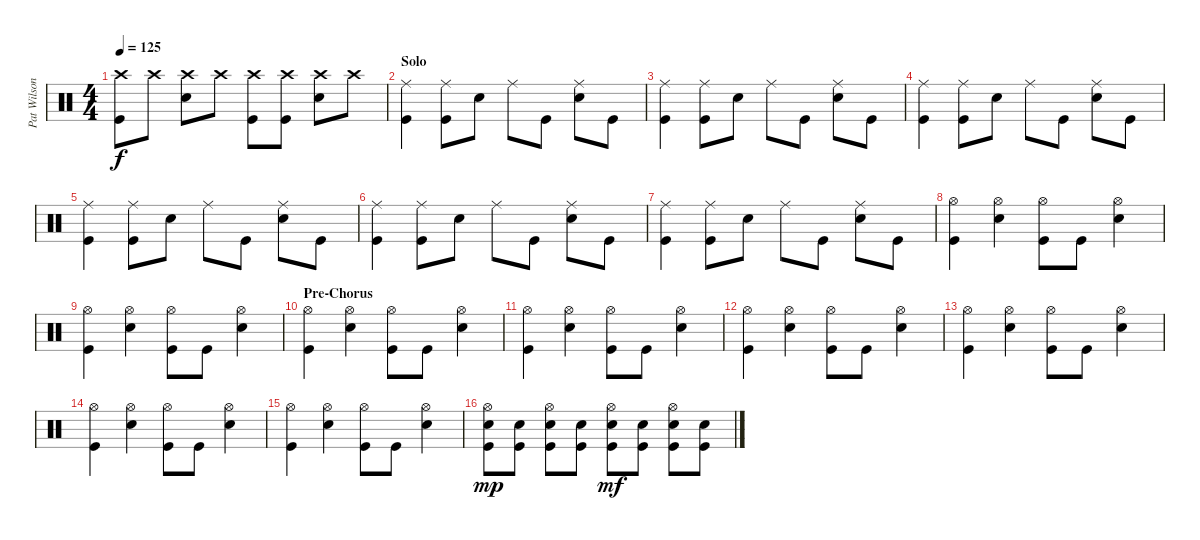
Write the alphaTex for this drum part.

\track ("Pat Wilson-Drums" "Pat Wilson") {instrument percussion}
\staff {score}
\articulation defaults
\ts (4 4)
\tempo 125
\clef neutral
\ks c
("Kick (hit)" "Crash high (hit)").8{dy f} "Crash high (hit)".8 ("Snare (hit) 2" "Crash high (hit)").8 "Crash high (hit)".8 ("Kick (hit)" "Crash high (hit)").8 ("Kick (hit)" "Crash high (hit)").8 ("Snare (hit) 2" "Crash high (hit)").8 "Crash high (hit)".8 |
\section ("" "Solo")
("Kick (hit)" "Ride (middle)").4 ("Kick (hit)" "Ride (middle)").8 "Snare (hit) 2".8 "Ride (middle)".8 "Kick (hit)".8 ("Snare (hit) 2" "Ride (middle)").8 "Kick (hit)".8 |
("Kick (hit)" "Ride (middle)").4 ("Kick (hit)" "Ride (middle)").8 "Snare (hit) 2".8 "Ride (middle)".8 "Kick (hit)".8 ("Snare (hit) 2" "Ride (middle)").8 "Kick (hit)".8 |
("Kick (hit)" "Ride (middle)").4 ("Kick (hit)" "Ride (middle)").8 "Snare (hit) 2".8 "Ride (middle)".8 "Kick (hit)".8 ("Snare (hit) 2" "Ride (middle)").8 "Kick (hit)".8 |
("Kick (hit)" "Ride (middle)").4 ("Kick (hit)" "Ride (middle)").8 "Snare (hit) 2".8 "Ride (middle)".8 "Kick (hit)".8 ("Snare (hit) 2" "Ride (middle)").8 "Kick (hit)".8 |
("Kick (hit)" "Ride (middle)").4 ("Kick (hit)" "Ride (middle)").8 "Snare (hit) 2".8 "Ride (middle)".8 "Kick (hit)".8 ("Snare (hit) 2" "Ride (middle)").8 "Kick (hit)".8 |
("Kick (hit)" "Ride (middle)").4 ("Kick (hit)" "Ride (middle)").8 "Snare (hit) 2".8 "Ride (middle)".8 "Kick (hit)".8 ("Snare (hit) 2" "Ride (middle)").8 "Kick (hit)".8 |
("Kick (hit)" "Hi-Hat (open)").4 ("Snare (hit) 2" "Hi-Hat (open)").4 ("Kick (hit)" "Hi-Hat (open)").8 "Kick (hit)".8 ("Snare (hit) 2" "Hi-Hat (open)").4 |
("Kick (hit)" "Hi-Hat (open)").4 ("Snare (hit) 2" "Hi-Hat (open)").4 ("Kick (hit)" "Hi-Hat (open)").8 "Kick (hit)".8 ("Snare (hit) 2" "Hi-Hat (open)").4 |
\section ("" "Pre-Chorus")
("Kick (hit)" "Hi-Hat (open)").4 ("Snare (hit) 2" "Hi-Hat (open)").4 ("Kick (hit)" "Hi-Hat (open)").8 "Kick (hit)".8 ("Snare (hit) 2" "Hi-Hat (open)").4 |
("Kick (hit)" "Hi-Hat (open)").4 ("Snare (hit) 2" "Hi-Hat (open)").4 ("Kick (hit)" "Hi-Hat (open)").8 "Kick (hit)".8 ("Snare (hit) 2" "Hi-Hat (open)").4 |
("Kick (hit)" "Hi-Hat (open)").4 ("Snare (hit) 2" "Hi-Hat (open)").4 ("Kick (hit)" "Hi-Hat (open)").8 "Kick (hit)".8 ("Snare (hit) 2" "Hi-Hat (open)").4 |
("Kick (hit)" "Hi-Hat (open)").4 ("Snare (hit) 2" "Hi-Hat (open)").4 ("Kick (hit)" "Hi-Hat (open)").8 "Kick (hit)".8 ("Snare (hit) 2" "Hi-Hat (open)").4 |
("Kick (hit)" "Hi-Hat (open)").4 ("Snare (hit) 2" "Hi-Hat (open)").4 ("Kick (hit)" "Hi-Hat (open)").8 "Kick (hit)".8 ("Snare (hit) 2" "Hi-Hat (open)").4 |
("Kick (hit)" "Hi-Hat (open)").4 ("Snare (hit) 2" "Hi-Hat (open)").4 ("Kick (hit)" "Hi-Hat (open)").8 "Kick (hit)".8 ("Snare (hit) 2" "Hi-Hat (open)").4 |
("Snare (hit) 2" "Kick (hit)" "Hi-Hat (open)").8{dy mp} ("Snare (hit) 2" "Kick (hit)").8 ("Snare (hit) 2" "Kick (hit)" "Hi-Hat (open)").8 ("Snare (hit) 2" "Kick (hit)").8 ("Snare (hit) 2" "Kick (hit)" "Hi-Hat (open)").8{dy mf} ("Snare (hit) 2" "Kick (hit)").8 ("Snare (hit) 2" "Kick (hit)" "Hi-Hat (open)").8 ("Snare (hit) 2" "Kick (hit)").8
